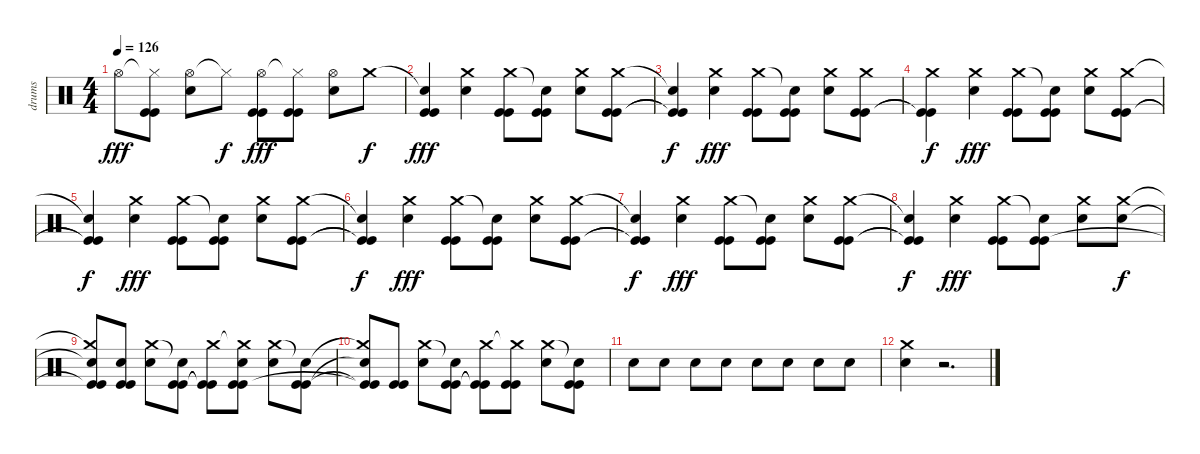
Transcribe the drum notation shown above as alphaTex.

\track ("drums" "drums") {instrument percussion}
\staff {score}
\articulation defaults
\ts (4 4)
\tempo 126
\clef neutral
\ks c "Hi-Hat (open)".8{dy fff}
("Hi-Hat (closed)"{t} "Kick (hit)" "Kick (hit)").8 ("Hi-Hat (open)" "Electric Snare (hit)").8 "Hi-Hat (closed)"{t}.8{dy f} ("Hi-Hat (open)" "Kick (hit)" "Kick (hit)").8{dy fff} ("Hi-Hat (closed)"{t} "Kick (hit)" "Kick (hit)").8 ("Hi-Hat (open)" "Electric Snare (hit)").8 "Crash medium (hit)".8{dy f} |
("Snare (hit)"{t} "Kick (hit)" "Kick (hit)").4{dy fff} ("Crash medium (hit)" "Electric Snare (hit)").4 ("Crash medium (hit)" "Kick (hit)" "Kick (hit)").8 ("Snare (hit)"{t} "Kick (hit)" "Kick (hit)").8 ("Crash medium (hit)" "Electric Snare (hit)").8 ("Crash medium (hit)" "Kick (hit)" "Kick (hit)").8 |
("Snare (hit)"{t} "Kick (hit)"{t} "Kick (hit)"{t}).4{dy f} ("Crash medium (hit)" "Electric Snare (hit)").4{dy fff} ("Crash medium (hit)" "Kick (hit)" "Kick (hit)").8 ("Snare (hit)"{t} "Kick (hit)" "Kick (hit)").8 ("Crash medium (hit)" "Electric Snare (hit)").8 ("Crash medium (hit)" "Kick (hit)" "Kick (hit)").8 |
("Crash medium (hit)" "Kick (hit)"{t} "Kick (hit)"{t}).4{dy f} ("Crash medium (hit)" "Electric Snare (hit)").4{dy fff} ("Crash medium (hit)" "Kick (hit)" "Kick (hit)").8 ("Snare (hit)"{t} "Kick (hit)" "Kick (hit)").8 ("Crash medium (hit)" "Electric Snare (hit)").8 ("Crash medium (hit)" "Kick (hit)" "Kick (hit)").8 |
("Snare (hit)"{t} "Kick (hit)"{t} "Kick (hit)"{t}).4{dy f} ("Crash medium (hit)" "Electric Snare (hit)").4{dy fff} ("Crash medium (hit)" "Kick (hit)" "Kick (hit)").8 ("Snare (hit)"{t} "Kick (hit)" "Kick (hit)").8 ("Crash medium (hit)" "Electric Snare (hit)").8 ("Crash medium (hit)" "Kick (hit)" "Kick (hit)").8 |
("Snare (hit)"{t} "Kick (hit)"{t} "Kick (hit)"{t}).4{dy f} ("Crash medium (hit)" "Electric Snare (hit)").4{dy fff} ("Crash medium (hit)" "Kick (hit)" "Kick (hit)").8 ("Snare (hit)"{t} "Kick (hit)" "Kick (hit)").8 ("Crash medium (hit)" "Electric Snare (hit)").8 ("Crash medium (hit)" "Kick (hit)" "Kick (hit)").8 |
("Snare (hit)"{t} "Kick (hit)"{t} "Kick (hit)"{t}).4{dy f} ("Crash medium (hit)" "Electric Snare (hit)").4{dy fff} ("Crash medium (hit)" "Kick (hit)" "Kick (hit)").8 ("Snare (hit)"{t} "Kick (hit)" "Kick (hit)").8 ("Crash medium (hit)" "Electric Snare (hit)").8 ("Crash medium (hit)" "Kick (hit)" "Kick (hit)").8 |
("Snare (hit)"{t} "Kick (hit)"{t} "Kick (hit)"{t}).4{dy f} ("Crash medium (hit)" "Electric Snare (hit)").4{dy fff} ("Crash medium (hit)" "Kick (hit)" "Kick (hit)").8 ("Snare (hit)"{t} "Kick (hit)" "Kick (hit)").8 ("Crash medium (hit)" "Electric Snare (hit)").8 ("Crash medium (hit)" "Electric Snare (hit)").8{dy f} |
("Crash medium (hit)"{t} "Snare (hit)"{t} "Kick (hit)"{t} "Kick (hit)").8 ("Electric Snare (hit)" "Kick (hit)" "Kick (hit)").8 ("Crash medium (hit)" "Electric Snare (hit)").8 ("Snare (hit)"{t} "Kick (hit)" "Kick (hit)").8 ("Crash medium (hit)" "Kick (hit)"{t} "Kick (hit)"{t}).8 ("Crash medium (hit)"{t} "Electric Snare (hit)" "Kick (hit)" "Kick (hit)").8 ("Crash medium (hit)" "Electric Snare (hit)").8 ("Snare (hit)"{t} "Kick (hit)" "Kick (hit)").8 |
("Crash medium (hit)"{t} "Snare (hit)"{t} "Kick (hit)"{t} "Kick (hit)"{t}).8 ("Kick (hit)" "Kick (hit)").8 ("Crash medium (hit)" "Electric Snare (hit)").8 ("Snare (hit)"{t} "Kick (hit)" "Kick (hit)").8 ("Crash medium (hit)" "Kick (hit)"{t} "Kick (hit)"{t}).8 ("Crash medium (hit)"{t} "Kick (hit)" "Kick (hit)").8 ("Crash medium (hit)" "Electric Snare (hit)").8 ("Snare (hit)"{t} "Kick (hit)" "Kick (hit)").8 |
"Electric Snare (hit)".8 "Electric Snare (hit)".8 "Electric Snare (hit)".8 "Electric Snare (hit)".8 "Electric Snare (hit)".8 "Electric Snare (hit)".8 "Electric Snare (hit)".8 "Electric Snare (hit)".8 |
("Crash medium (hit)" "Electric Snare (hit)").4 r.2{d}
